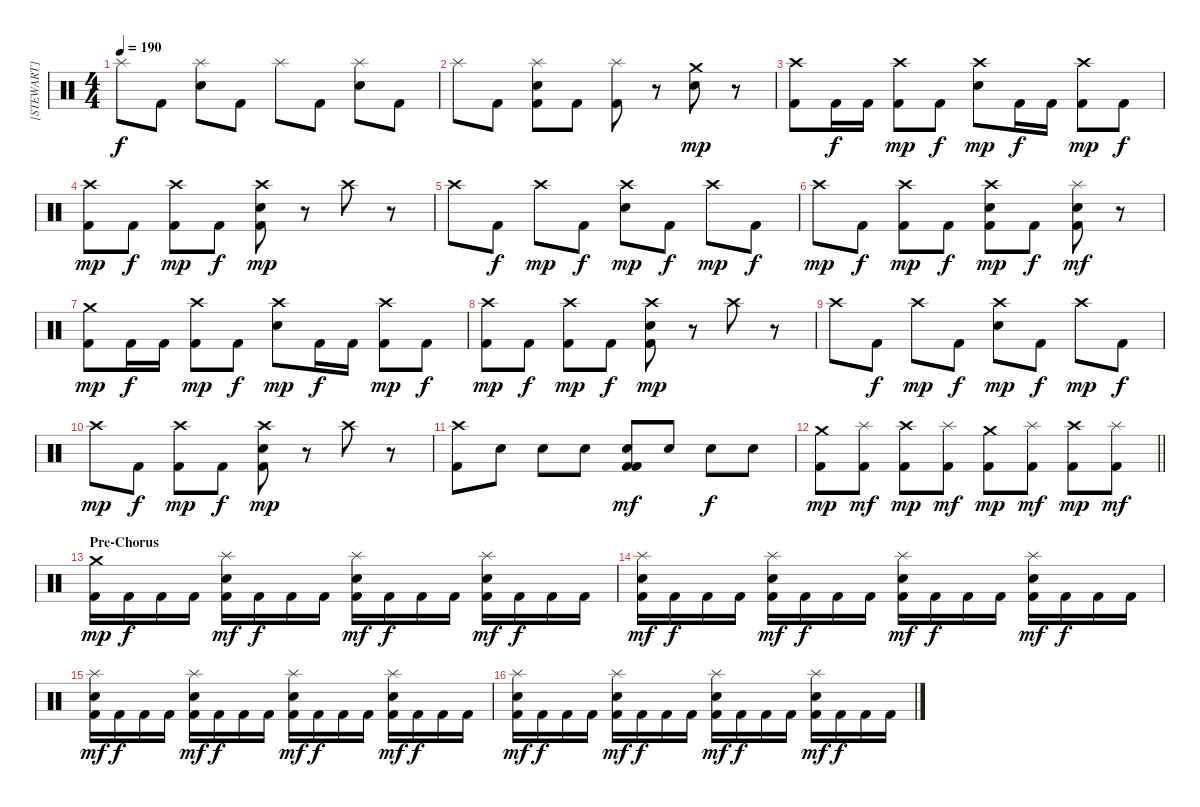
\track ("[STEWART]" "[STEWART]") {instrument percussion}
\staff {score}
\articulation defaults
\ts (4 4)
\tempo 190
\clef neutral
\ks c "Splash (hit)".8{dy f} "Kick (hit) 2".8
("Splash (hit)" "Electric Snare (hit)").8 "Kick (hit) 2".8 "Splash (hit)".8 "Kick (hit) 2".8 ("Splash (hit)" "Electric Snare (hit)").8 "Kick (hit) 2".8 |
"Splash (hit)".8 "Kick (hit) 2".8 ("Splash (hit)" "Electric Snare (hit)" "Kick (hit) 2").8 "Kick (hit) 2".8 ("Splash (hit)" "Kick (hit) 2").8 r.8 ("Crash medium (hit)" "Electric Snare (hit)").8{dy mp} r.8 |
("Crash high (hit)" "Kick (hit) 2").8 "Kick (hit) 2".16{dy f} "Kick (hit) 2".16 ("Crash high (hit)" "Kick (hit) 2").8{dy mp} "Kick (hit) 2".8{dy f} ("Crash high (hit)" "Electric Snare (hit)").8{dy mp} "Kick (hit) 2".16{dy f} "Kick (hit) 2".16 ("Crash high (hit)" "Kick (hit) 2").8{dy mp} "Kick (hit) 2".8{dy f} |
("Crash high (hit)" "Kick (hit) 2").8{dy mp} "Kick (hit) 2".8{dy f} ("Crash high (hit)" "Kick (hit) 2").8{dy mp} "Kick (hit) 2".8{dy f} ("Crash high (hit)" "Electric Snare (hit)" "Kick (hit) 2").8{dy mp} r.8 "Crash high (hit)".8 r.8 |
"Crash high (hit)".8 "Kick (hit) 2".8{dy f} "Crash high (hit)".8{dy mp} "Kick (hit) 2".8{dy f} ("Crash high (hit)" "Electric Snare (hit)").8{dy mp} "Kick (hit) 2".8{dy f} "Crash high (hit)".8{dy mp} "Kick (hit) 2".8{dy f} |
"Crash high (hit)".8{dy mp} "Kick (hit) 2".8{dy f} ("Crash high (hit)" "Kick (hit) 2").8{dy mp} "Kick (hit) 2".8{dy f} ("Crash high (hit)" "Electric Snare (hit)" "Kick (hit) 2").8{dy mp} "Kick (hit) 2".8{dy f} ("Splash (hit)" "Electric Snare (hit)" "Kick (hit) 2").8{dy mf} r.8 |
("Crash medium (hit)" "Kick (hit) 2").8{dy mp} "Kick (hit) 2".16{dy f} "Kick (hit) 2".16 ("Crash high (hit)" "Kick (hit) 2").8{dy mp} "Kick (hit) 2".8{dy f} ("Crash high (hit)" "Electric Snare (hit)").8{dy mp} "Kick (hit) 2".16{dy f} "Kick (hit) 2".16 ("Crash high (hit)" "Kick (hit) 2").8{dy mp} "Kick (hit) 2".8{dy f} |
("Crash high (hit)" "Kick (hit) 2").8{dy mp} "Kick (hit) 2".8{dy f} ("Crash high (hit)" "Kick (hit) 2").8{dy mp} "Kick (hit) 2".8{dy f} ("Crash high (hit)" "Electric Snare (hit)" "Kick (hit) 2").8{dy mp} r.8 "Crash high (hit)".8 r.8 |
"Crash high (hit)".8 "Kick (hit) 2".8{dy f} "Crash high (hit)".8{dy mp} "Kick (hit) 2".8{dy f} ("Crash high (hit)" "Electric Snare (hit)").8{dy mp} "Kick (hit) 2".8{dy f} "Crash high (hit)".8{dy mp} "Kick (hit) 2".8{dy f} |
"Crash high (hit)".8{dy mp} "Kick (hit) 2".8{dy f} ("Crash high (hit)" "Kick (hit) 2").8{dy mp} "Kick (hit) 2".8{dy f} ("Crash high (hit)" "Electric Snare (hit)" "Kick (hit) 2").8{dy mp} r.8 "Crash high (hit)".8 r.8 |
("Crash high (hit)" "Kick (hit) 2").8 "Electric Snare (hit)".8 "Electric Snare (hit)".8 "Electric Snare (hit)".8 ("Electric Snare (hit)" "Kick (hit) 2" "Kick (hit) 2").8{dy mf} "Electric Snare (hit)".8 "Electric Snare (hit)".8{dy f} "Electric Snare (hit)".8 |
\barLineRight lightlight
("Crash medium (hit)" "Kick (hit) 2").8{dy mp} ("Splash (hit)" "Kick (hit) 2").8{dy mf} ("Crash high (hit)" "Kick (hit) 2").8{dy mp} ("Splash (hit)" "Kick (hit) 2").8{dy mf} ("Crash medium (hit)" "Kick (hit) 2").8{dy mp} ("Splash (hit)" "Kick (hit) 2").8{dy mf} ("Crash high (hit)" "Kick (hit) 2").8{dy mp} ("Splash (hit)" "Kick (hit) 2").8{dy mf} |
\section ("" "Pre-Chorus ")
("Crash medium (hit)" "Kick (hit) 2").16{dy mp} "Kick (hit) 2".16{dy f} "Kick (hit) 2".16 "Kick (hit) 2".16 ("Splash (hit)" "Electric Snare (hit)" "Kick (hit) 2").16{dy mf} "Kick (hit) 2".16{dy f} "Kick (hit) 2".16 "Kick (hit) 2".16 ("Splash (hit)" "Electric Snare (hit)" "Kick (hit) 2").16{dy mf} "Kick (hit) 2".16{dy f} "Kick (hit) 2".16 "Kick (hit) 2".16 ("Splash (hit)" "Electric Snare (hit)" "Kick (hit) 2").16{dy mf} "Kick (hit) 2".16{dy f} "Kick (hit) 2".16 "Kick (hit) 2".16 |
("Splash (hit)" "Electric Snare (hit)" "Kick (hit) 2").16{dy mf} "Kick (hit) 2".16{dy f} "Kick (hit) 2".16 "Kick (hit) 2".16 ("Splash (hit)" "Electric Snare (hit)" "Kick (hit) 2").16{dy mf} "Kick (hit) 2".16{dy f} "Kick (hit) 2".16 "Kick (hit) 2".16 ("Splash (hit)" "Electric Snare (hit)" "Kick (hit) 2").16{dy mf} "Kick (hit) 2".16{dy f} "Kick (hit) 2".16 "Kick (hit) 2".16 ("Splash (hit)" "Electric Snare (hit)" "Kick (hit) 2").16{dy mf} "Kick (hit) 2".16{dy f} "Kick (hit) 2".16 "Kick (hit) 2".16 |
("Splash (hit)" "Electric Snare (hit)" "Kick (hit) 2").16{dy mf} "Kick (hit) 2".16{dy f} "Kick (hit) 2".16 "Kick (hit) 2".16 ("Splash (hit)" "Electric Snare (hit)" "Kick (hit) 2").16{dy mf} "Kick (hit) 2".16{dy f} "Kick (hit) 2".16 "Kick (hit) 2".16 ("Splash (hit)" "Electric Snare (hit)" "Kick (hit) 2").16{dy mf} "Kick (hit) 2".16{dy f} "Kick (hit) 2".16 "Kick (hit) 2".16 ("Splash (hit)" "Electric Snare (hit)" "Kick (hit) 2").16{dy mf} "Kick (hit) 2".16{dy f} "Kick (hit) 2".16 "Kick (hit) 2".16 |
("Splash (hit)" "Electric Snare (hit)" "Kick (hit) 2").16{dy mf} "Kick (hit) 2".16{dy f} "Kick (hit) 2".16 "Kick (hit) 2".16 ("Splash (hit)" "Electric Snare (hit)" "Kick (hit) 2").16{dy mf} "Kick (hit) 2".16{dy f} "Kick (hit) 2".16 "Kick (hit) 2".16 ("Splash (hit)" "Electric Snare (hit)" "Kick (hit) 2").16{dy mf} "Kick (hit) 2".16{dy f} "Kick (hit) 2".16 "Kick (hit) 2".16 ("Splash (hit)" "Electric Snare (hit)" "Kick (hit) 2").16{dy mf} "Kick (hit) 2".16{dy f} "Kick (hit) 2".16 "Kick (hit) 2".16
